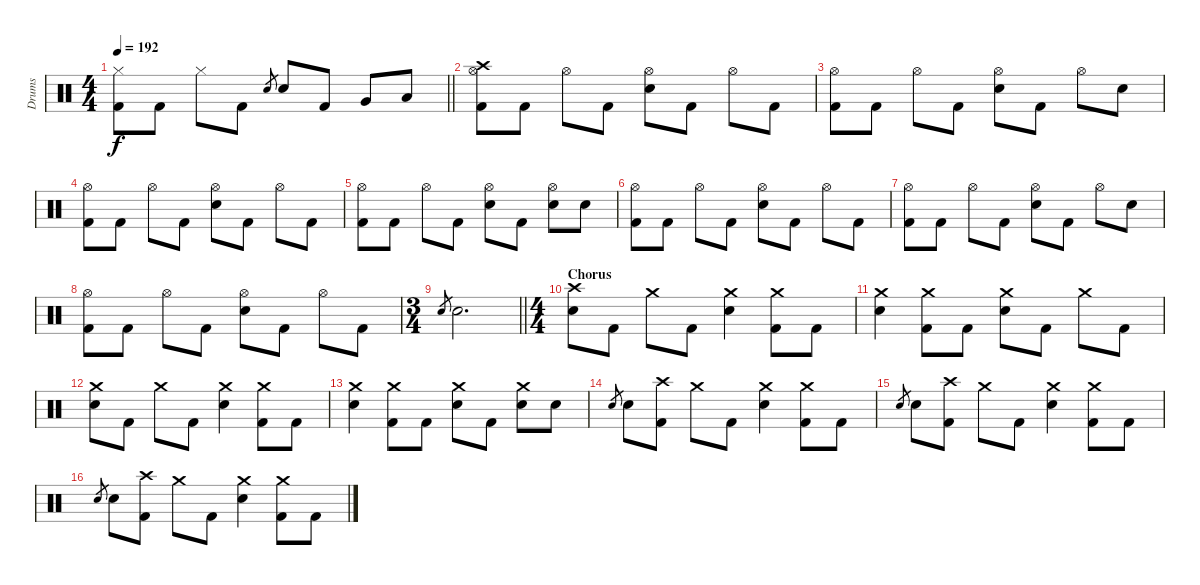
\track ("Drums" "Drums") {instrument percussion}
\staff {score}
\articulation defaults
\ts (4 4)
\tempo 192
\clef neutral
\barLineRight lightlight
\ks c
("Hi-Hat (closed)" "Kick (hit) 2").8{dy f} "Kick (hit) 2".8 "Hi-Hat (closed)".8 "Kick (hit) 2".8 "Electric Snare (hit)".8{gr} "Electric Snare (hit)".8 "Kick (hit) 2".8 "Very Low Tom (hit)".8 "Low Tom (hit)".8 |
\section ("" "")
("Crash high (hit)" "Hi-Hat (open)" "Kick (hit) 2").8 "Kick (hit) 2".8 "Hi-Hat (open)".8 "Kick (hit) 2".8 ("Hi-Hat (open)" "Electric Snare (hit)").8 "Kick (hit) 2".8 "Hi-Hat (open)".8 "Kick (hit) 2".8 |
("Hi-Hat (open)" "Kick (hit) 2").8 "Kick (hit) 2".8 "Hi-Hat (open)".8 "Kick (hit) 2".8 ("Hi-Hat (open)" "Electric Snare (hit)").8 "Kick (hit) 2".8 "Hi-Hat (open)".8 "Electric Snare (hit)".8 |
("Hi-Hat (open)" "Kick (hit) 2").8 "Kick (hit) 2".8 "Hi-Hat (open)".8 "Kick (hit) 2".8 ("Hi-Hat (open)" "Electric Snare (hit)").8 "Kick (hit) 2".8 "Hi-Hat (open)".8 "Kick (hit) 2".8 |
("Hi-Hat (open)" "Kick (hit) 2").8 "Kick (hit) 2".8 "Hi-Hat (open)".8 "Kick (hit) 2".8 ("Hi-Hat (open)" "Electric Snare (hit)").8 "Kick (hit) 2".8 ("Hi-Hat (open)" "Electric Snare (hit)").8 "Electric Snare (hit)".8 |
("Hi-Hat (open)" "Kick (hit) 2").8 "Kick (hit) 2".8 "Hi-Hat (open)".8 "Kick (hit) 2".8 ("Hi-Hat (open)" "Electric Snare (hit)").8 "Kick (hit) 2".8 "Hi-Hat (open)".8 "Kick (hit) 2".8 |
("Hi-Hat (open)" "Kick (hit) 2").8 "Kick (hit) 2".8 "Hi-Hat (open)".8 "Kick (hit) 2".8 ("Hi-Hat (open)" "Electric Snare (hit)").8 "Kick (hit) 2".8 "Hi-Hat (open)".8 "Electric Snare (hit)".8 |
("Hi-Hat (open)" "Kick (hit) 2").8 "Kick (hit) 2".8 "Hi-Hat (open)".8 "Kick (hit) 2".8 ("Hi-Hat (open)" "Electric Snare (hit)").8 "Kick (hit) 2".8 "Hi-Hat (open)".8 "Kick (hit) 2".8 |
\ts (3 4)
\barLineRight lightlight "Electric Snare (hit)".8{gr} "Electric Snare (hit)".2{d}
|
\ts (4 4)
\section ("" "Chorus")
("Crash high (hit)" "Electric Snare (hit)").8 "Kick (hit) 2".8 "Crash medium (hit)".8 "Kick (hit) 2".8 ("Crash medium (hit)" "Electric Snare (hit)").4 ("Crash medium (hit)" "Kick (hit) 2").8 "Kick (hit) 2".8 |
("Crash medium (hit)" "Electric Snare (hit)").4 ("Crash medium (hit)" "Kick (hit) 2").8 "Kick (hit) 2".8 ("Crash medium (hit)" "Electric Snare (hit)").8 "Kick (hit) 2".8 "Crash medium (hit)".8 "Kick (hit) 2".8 |
("Crash medium (hit)" "Electric Snare (hit)").8 "Kick (hit) 2".8 "Crash medium (hit)".8 "Kick (hit) 2".8 ("Crash medium (hit)" "Electric Snare (hit)").4 ("Crash medium (hit)" "Kick (hit) 2").8 "Kick (hit) 2".8 |
("Crash medium (hit)" "Electric Snare (hit)").4 ("Crash medium (hit)" "Kick (hit) 2").8 "Kick (hit) 2".8 ("Crash medium (hit)" "Electric Snare (hit)").8 "Kick (hit) 2".8 ("Crash medium (hit)" "Electric Snare (hit)").8 "Electric Snare (hit)".8 |
"Electric Snare (hit)".8{gr} "Electric Snare (hit)".8 ("Crash high (hit)" "Kick (hit) 2").8 "Crash medium (hit)".8 "Kick (hit) 2".8 ("Crash medium (hit)" "Electric Snare (hit)").4 ("Crash medium (hit)" "Kick (hit) 2").8 "Kick (hit) 2".8 |
"Electric Snare (hit)".8{gr} "Electric Snare (hit)".8 ("Crash high (hit)" "Kick (hit) 2").8 "Crash medium (hit)".8 "Kick (hit) 2".8 ("Crash medium (hit)" "Electric Snare (hit)").4 ("Crash medium (hit)" "Kick (hit) 2").8 "Kick (hit) 2".8 |
"Electric Snare (hit)".8{gr} "Electric Snare (hit)".8 ("Crash high (hit)" "Kick (hit) 2").8 "Crash medium (hit)".8 "Kick (hit) 2".8 ("Crash medium (hit)" "Electric Snare (hit)").4 ("Crash medium (hit)" "Kick (hit) 2").8 "Kick (hit) 2".8
